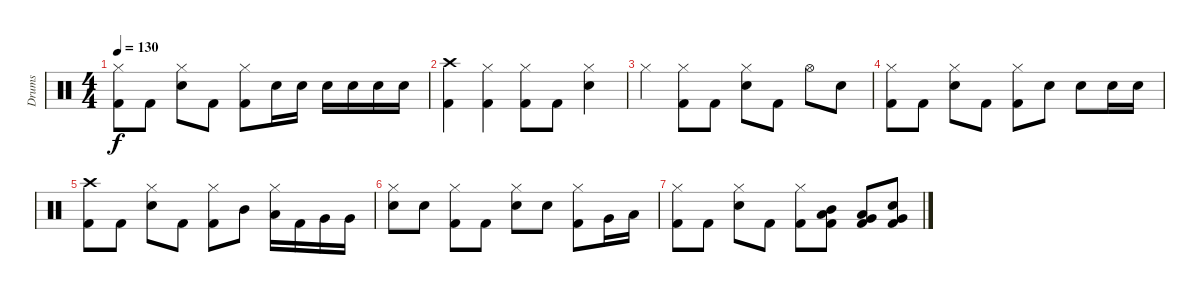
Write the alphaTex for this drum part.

\track ("Drums" "Drums") {instrument percussion}
\staff {score}
\articulation defaults
\ts (4 4)
\tempo 130
\clef neutral
\ks c
("Hi-Hat (closed)" "Kick (hit) 2").8{dy f} "Kick (hit) 2".8 ("Hi-Hat (closed)" "Snare (hit) 2").8 "Kick (hit) 2".8 ("Hi-Hat (closed)" "Kick (hit) 2").8 "Snare (hit) 2".16 "Snare (hit) 2".16 "Snare (hit) 2".16 "Electric Snare (hit)".16 "Electric Snare (hit)".16 "Electric Snare (hit)".16 |
("Crash high (hit)" "Kick (hit) 2").4 ("Hi-Hat (closed)" "Kick (hit) 2").4 ("Hi-Hat (closed)" "Kick (hit) 2").8 "Kick (hit) 2".8 ("Hi-Hat (closed)" "Snare (hit) 2").4 |
"Hi-Hat (closed)".4 ("Hi-Hat (closed)" "Kick (hit) 2").8 "Kick (hit) 2".8 ("Hi-Hat (closed)" "Snare (hit) 2").8 "Kick (hit) 2".8 "Hi-Hat (open)".8 "Snare (hit) 2".8 |
("Hi-Hat (closed)" "Kick (hit) 2").8 "Kick (hit) 2".8 ("Hi-Hat (closed)" "Snare (hit) 2").8 "Kick (hit) 2".8 ("Hi-Hat (closed)" "Kick (hit) 2").8 "Snare (hit) 2".8 "Snare (hit) 2".8 "Snare (hit) 2".16 "Snare (hit) 2".16 |
("Crash high (hit)" "Kick (hit) 2").8 "Kick (hit) 2".8 ("Hi-Hat (closed)" "Electric Snare (hit)").8 "Kick (hit) 2".8 ("Hi-Hat (closed)" "Kick (hit) 2").8 "Mid Tom (hit)".8 ("Hi-Hat (closed)" "Low Tom (hit)").16 "Kick (hit) 2".16 "Very Low Tom (hit)".16 "Very Low Tom (hit)".16 |
("Hi-Hat (closed)" "Snare (hit) 2").8 "Snare (hit) 2".8 ("Hi-Hat (closed)" "Kick (hit) 2").8 "Kick (hit) 2".8 ("Hi-Hat (closed)" "Snare (hit) 2").8 "Snare (hit) 2".8 ("Hi-Hat (closed)" "Kick (hit) 2").8 "Very Low Tom (hit)".16 "Low Floor Tom (hit)".16 |
("Hi-Hat (closed)" "Kick (hit) 2").8 "Kick (hit) 2".8 ("Hi-Hat (closed)" "Snare (hit) 2").8 "Kick (hit) 2".8 ("Hi-Hat (closed)" "Kick (hit) 2").8 ("Mid Tom (hit)" "Low Tom (hit)" "Kick (hit) 2").8 ("Low Tom (hit)" "Very Low Tom (hit)" "Kick (hit) 2").8 ("Very Low Tom (hit)" "Snare (hit) 2" "Kick (hit) 2").8
